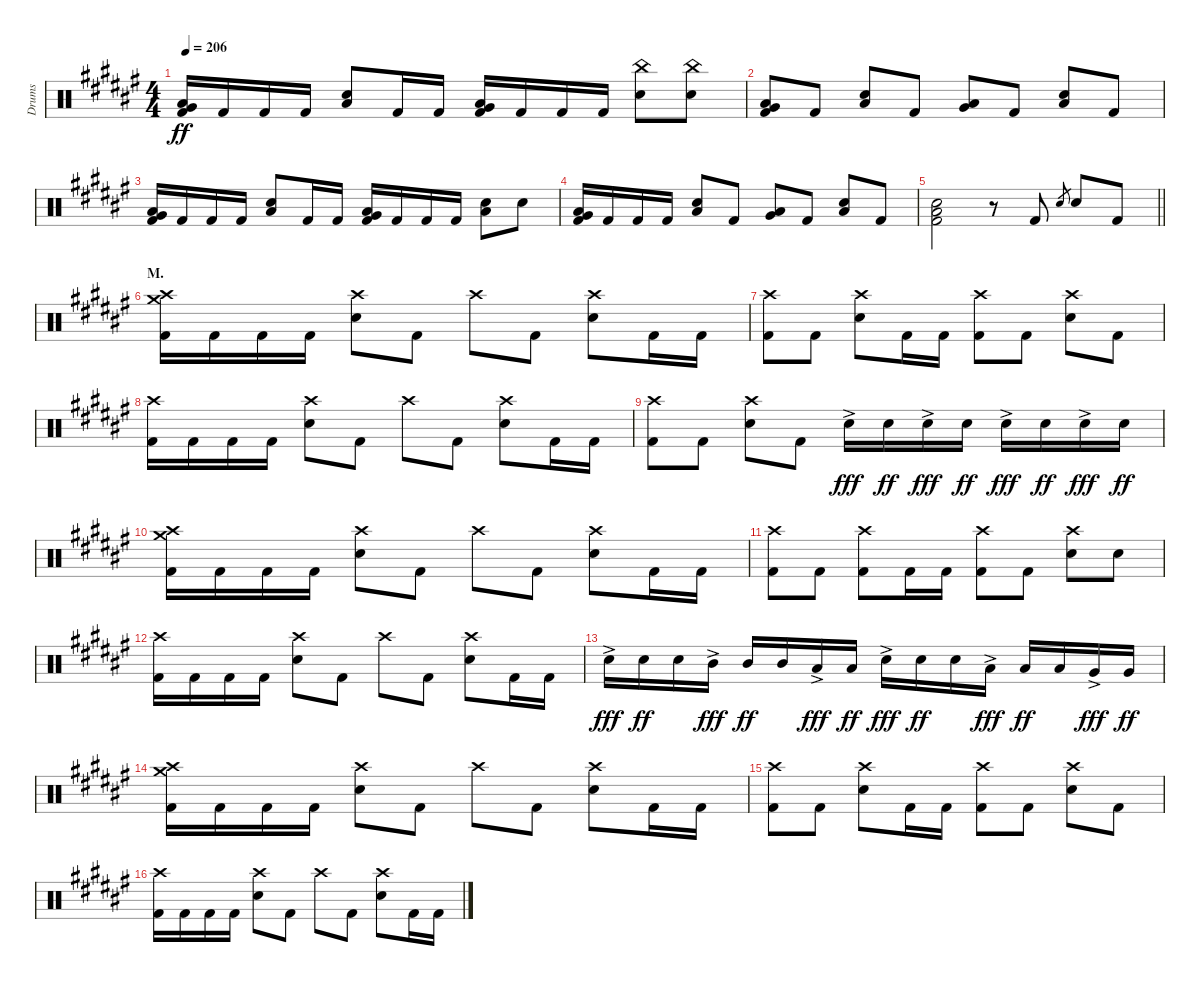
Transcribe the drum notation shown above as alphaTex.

\track ("Drums" "Drums") {instrument percussion}
\staff {score}
\articulation defaults
\ts (4 4)
\tempo 206
\clef neutral
\ks f#
("Low Tom (hit)" "Very Low Tom (hit)" "Kick (hit) 2").16{dy ff} "Kick (hit) 2".16 "Kick (hit) 2".16 "Kick (hit) 2".16 ("Low Tom (hit)" "Electric Snare (hit)").8{bu 60} "Kick (hit) 2".16 "Kick (hit) 2".16 ("Low Tom (hit)" "Very Low Tom (hit)" "Kick (hit) 2").16 "Kick (hit) 2".16 "Kick (hit) 2".16 "Kick (hit) 2".16 ("China (hit)" "Electric Snare (hit)").8 ("China (hit)" "Electric Snare (hit)").8 |
("Low Tom (hit)" "Very Low Tom (hit)" "Kick (hit) 2").8 "Kick (hit) 2".8 ("Low Tom (hit)" "Electric Snare (hit)").8{bu 60} "Kick (hit) 2".8 ("Low Tom (hit)" "Very Low Tom (hit)").8{bu 60} "Kick (hit) 2".8 ("Low Tom (hit)" "Electric Snare (hit)").8{bu 60} "Kick (hit) 2".8 |
("Low Tom (hit)" "Very Low Tom (hit)" "Kick (hit) 2").16 "Kick (hit) 2".16 "Kick (hit) 2".16 "Kick (hit) 2".16 ("Low Tom (hit)" "Electric Snare (hit)").8{bu 60} "Kick (hit) 2".16 "Kick (hit) 2".16 ("Low Tom (hit)" "Very Low Tom (hit)" "Kick (hit) 2").16 "Kick (hit) 2".16 "Kick (hit) 2".16 "Kick (hit) 2".16 ("Low Tom (hit)" "Electric Snare (hit)").8{bu 60} "Electric Snare (hit)".8 |
("Low Tom (hit)" "Very Low Tom (hit)" "Kick (hit) 2").16 "Kick (hit) 2".16 "Kick (hit) 2".16 "Kick (hit) 2".16 ("Low Tom (hit)" "Electric Snare (hit)").8{bu 60} "Kick (hit) 2".8 ("Low Tom (hit)" "Very Low Tom (hit)").8{bu 60} "Kick (hit) 2".8 ("Low Tom (hit)" "Electric Snare (hit)").8{bu 60} "Kick (hit) 2".8 |
\barLineRight lightlight
("Low Tom (hit)" "Electric Snare (hit)" "Kick (hit) 2").2 r.8 "Kick (hit) 2".8 "Electric Snare (hit)".8{gr} "Electric Snare (hit)".8 "Kick (hit) 2".8 |
\section ("" "M. ")
("Crash medium (hit)" "Crash high (hit)" "Kick (hit) 2").16{volume 14} "Kick (hit) 2".16 "Kick (hit) 2".16 "Kick (hit) 2".16 ("Crash high (hit)" "Electric Snare (hit)").8 "Kick (hit) 2".8 "Crash high (hit)".8 "Kick (hit) 2".8 ("Crash high (hit)" "Electric Snare (hit)").8 "Kick (hit) 2".16 "Kick (hit) 2".16 |
("Crash high (hit)" "Kick (hit) 2").8 "Kick (hit) 2".8 ("Crash high (hit)" "Electric Snare (hit)").8 "Kick (hit) 2".16 "Kick (hit) 2".16 ("Crash high (hit)" "Kick (hit) 2").8 "Kick (hit) 2".8 ("Crash high (hit)" "Electric Snare (hit)").8 "Kick (hit) 2".8 |
("Crash high (hit)" "Kick (hit) 2").16 "Kick (hit) 2".16 "Kick (hit) 2".16 "Kick (hit) 2".16 ("Crash high (hit)" "Electric Snare (hit)").8 "Kick (hit) 2".8 "Crash high (hit)".8 "Kick (hit) 2".8 ("Crash high (hit)" "Electric Snare (hit)").8 "Kick (hit) 2".16 "Kick (hit) 2".16 |
("Crash high (hit)" "Kick (hit) 2").8 "Kick (hit) 2".8 ("Crash high (hit)" "Electric Snare (hit)").8 "Kick (hit) 2".8 "Electric Snare (hit)"{ac}.16{dy fff} "Electric Snare (hit)".16{dy ff} "Electric Snare (hit)"{ac}.16{dy fff} "Electric Snare (hit)".16{dy ff} "Electric Snare (hit)"{ac}.16{dy fff} "Electric Snare (hit)".16{dy ff} "Electric Snare (hit)"{ac}.16{dy fff} "Electric Snare (hit)".16{dy ff} |
("Crash medium (hit)" "Crash high (hit)" "Kick (hit) 2").16 "Kick (hit) 2".16 "Kick (hit) 2".16 "Kick (hit) 2".16 ("Crash high (hit)" "Electric Snare (hit)").8 "Kick (hit) 2".8 "Crash high (hit)".8 "Kick (hit) 2".8 ("Crash high (hit)" "Electric Snare (hit)").8 "Kick (hit) 2".16 "Kick (hit) 2".16 |
("Crash high (hit)" "Kick (hit) 2").8 "Kick (hit) 2".8 ("Crash high (hit)" "Kick (hit) 2").8 "Kick (hit) 2".16 "Kick (hit) 2".16 ("Crash high (hit)" "Kick (hit) 2").8 "Kick (hit) 2".8 ("Crash high (hit)" "Electric Snare (hit)").8 "Electric Snare (hit)".8 |
("Crash high (hit)" "Kick (hit) 2").16 "Kick (hit) 2".16 "Kick (hit) 2".16 "Kick (hit) 2".16 ("Crash high (hit)" "Electric Snare (hit)").8 "Kick (hit) 2".8 "Crash high (hit)".8 "Kick (hit) 2".8 ("Crash high (hit)" "Electric Snare (hit)").8 "Kick (hit) 2".16 "Kick (hit) 2".16 |
"Electric Snare (hit)"{ac}.16{dy fff} "Electric Snare (hit)".16{dy ff} "Electric Snare (hit)".16 "Mid Tom (hit)"{ac}.16{dy fff} "Mid Tom (hit)".16{dy ff} "Mid Tom (hit)".16 "Low Tom (hit)"{ac}.16{dy fff} "Low Tom (hit)".16{dy ff} "Electric Snare (hit)"{ac}.16{dy fff} "Electric Snare (hit)".16{dy ff} "Electric Snare (hit)".16 "Low Tom (hit)"{ac}.16{dy fff} "Low Tom (hit)".16{dy ff} "Low Tom (hit)".16 "Very Low Tom (hit)"{ac}.16{dy fff} "Very Low Tom (hit)".16{dy ff} |
("Crash medium (hit)" "Crash high (hit)" "Kick (hit) 2").16 "Kick (hit) 2".16 "Kick (hit) 2".16 "Kick (hit) 2".16 ("Crash high (hit)" "Electric Snare (hit)").8 "Kick (hit) 2".8 "Crash high (hit)".8 "Kick (hit) 2".8 ("Crash high (hit)" "Electric Snare (hit)").8 "Kick (hit) 2".16 "Kick (hit) 2".16 |
("Crash high (hit)" "Kick (hit) 2").8 "Kick (hit) 2".8 ("Crash high (hit)" "Electric Snare (hit)").8 "Kick (hit) 2".16 "Kick (hit) 2".16 ("Crash high (hit)" "Kick (hit) 2").8 "Kick (hit) 2".8 ("Crash high (hit)" "Electric Snare (hit)").8 "Kick (hit) 2".8 |
("Crash high (hit)" "Kick (hit) 2").16 "Kick (hit) 2".16 "Kick (hit) 2".16 "Kick (hit) 2".16 ("Crash high (hit)" "Electric Snare (hit)").8 "Kick (hit) 2".8 "Crash high (hit)".8 "Kick (hit) 2".8 ("Crash high (hit)" "Electric Snare (hit)").8 "Kick (hit) 2".16 "Kick (hit) 2".16
